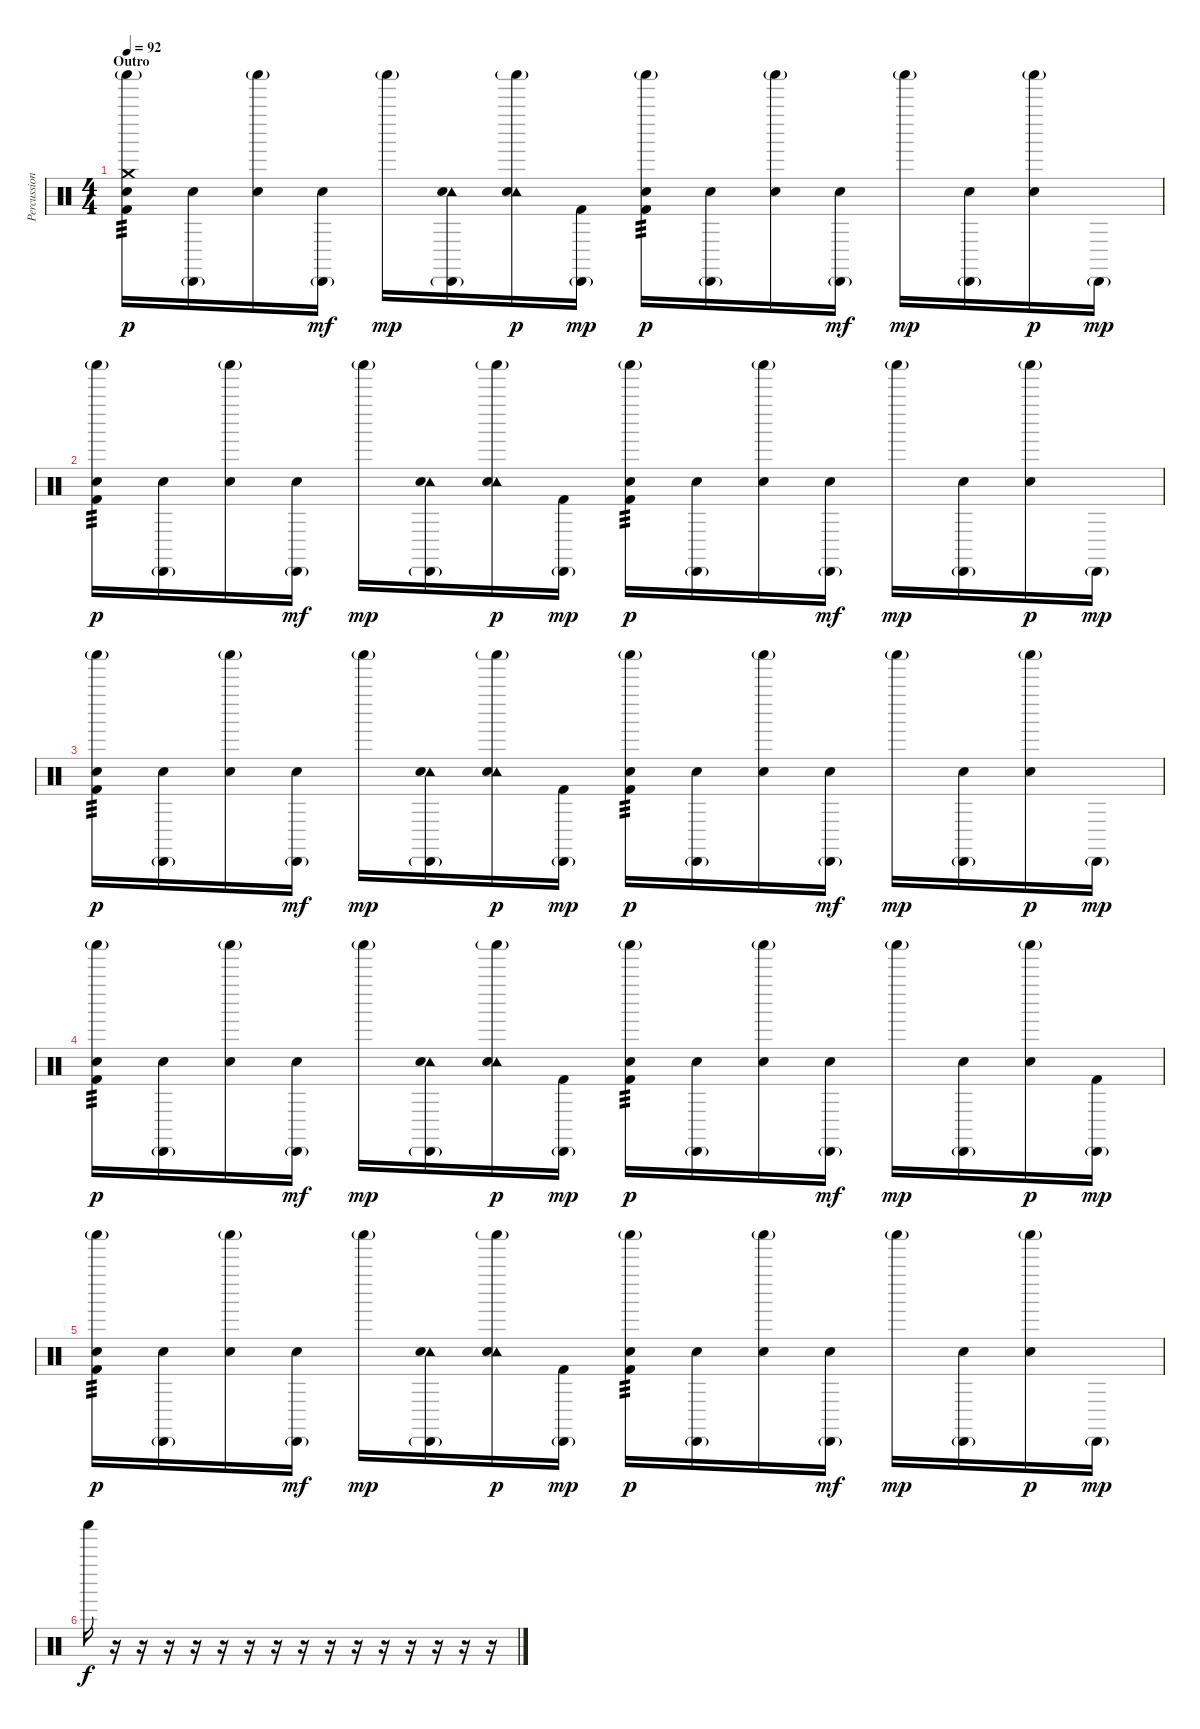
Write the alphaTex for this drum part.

\track ("Percussion2" "Percussion") {instrument percussion}
\staff {score}
\articulation defaults
\ts (4 4)
\section ("" "Outro")
\tempo 92
\clef neutral
\ks c
("Shaker (hit)"{g} "Crash medium (hit)" "Snare (hit) 2" "Kick (hit) 2").16{tp 3 dy p} ("Cabasa (hit)"{g} "Snare (hit) 2").16 ("Shaker (hit)"{g} "Snare (hit) 2").16 ("Cabasa (hit)"{g} "Snare (hit) 2").16{dy mf} "Shaker (hit)"{g}.16{dy mp} ("Cabasa (hit)"{g} "Tambourine (hit)" "Snare (hit) 2").16 ("Shaker (hit)"{g} "Tambourine (hit)" "Snare (hit) 2").16{dy p} ("Cabasa (hit)"{g} "Kick (hit) 2").16{dy mp} ("Shaker (hit)"{g} "Snare (hit) 2" "Kick (hit) 2").16{tp 3 dy p} ("Cabasa (hit)"{g} "Snare (hit) 2").16 ("Shaker (hit)"{g} "Snare (hit) 2").16 ("Cabasa (hit)"{g} "Snare (hit) 2").16{dy mf} "Shaker (hit)"{g}.16{dy mp} ("Cabasa (hit)"{g} "Snare (hit) 2").16 ("Shaker (hit)"{g} "Snare (hit) 2").16{dy p} "Cabasa (hit)"{g}.16{dy mp} |
("Shaker (hit)"{g} "Snare (hit) 2" "Kick (hit) 2").16{tp 3 dy p} ("Cabasa (hit)"{g} "Snare (hit) 2").16 ("Shaker (hit)"{g} "Snare (hit) 2").16 ("Cabasa (hit)"{g} "Snare (hit) 2").16{dy mf} "Shaker (hit)"{g}.16{dy mp} ("Cabasa (hit)"{g} "Tambourine (hit)" "Snare (hit) 2").16 ("Shaker (hit)"{g} "Tambourine (hit)" "Snare (hit) 2").16{dy p} ("Cabasa (hit)"{g} "Kick (hit) 2").16{dy mp} ("Shaker (hit)"{g} "Snare (hit) 2" "Kick (hit) 2").16{tp 3 dy p} ("Cabasa (hit)"{g} "Snare (hit) 2").16 ("Shaker (hit)"{g} "Snare (hit) 2").16 ("Cabasa (hit)"{g} "Snare (hit) 2").16{dy mf} "Shaker (hit)"{g}.16{dy mp} ("Cabasa (hit)"{g} "Snare (hit) 2").16 ("Shaker (hit)"{g} "Snare (hit) 2").16{dy p} "Cabasa (hit)"{g}.16{dy mp} |
("Shaker (hit)"{g} "Snare (hit) 2" "Kick (hit) 2").16{tp 3 dy p} ("Cabasa (hit)"{g} "Snare (hit) 2").16 ("Shaker (hit)"{g} "Snare (hit) 2").16 ("Cabasa (hit)"{g} "Snare (hit) 2").16{dy mf} "Shaker (hit)"{g}.16{dy mp} ("Cabasa (hit)"{g} "Tambourine (hit)" "Snare (hit) 2").16 ("Shaker (hit)"{g} "Tambourine (hit)" "Snare (hit) 2").16{dy p} ("Cabasa (hit)"{g} "Kick (hit) 2").16{dy mp} ("Shaker (hit)"{g} "Snare (hit) 2" "Kick (hit) 2").16{tp 3 dy p} ("Cabasa (hit)"{g} "Snare (hit) 2").16 ("Shaker (hit)"{g} "Snare (hit) 2").16 ("Cabasa (hit)"{g} "Snare (hit) 2").16{dy mf} "Shaker (hit)"{g}.16{dy mp} ("Cabasa (hit)"{g} "Snare (hit) 2").16 ("Shaker (hit)"{g} "Snare (hit) 2").16{dy p} "Cabasa (hit)"{g}.16{dy mp} |
("Shaker (hit)"{g} "Snare (hit) 2" "Kick (hit) 2").16{tp 3 dy p} ("Cabasa (hit)"{g} "Snare (hit) 2").16 ("Shaker (hit)"{g} "Snare (hit) 2").16 ("Cabasa (hit)"{g} "Snare (hit) 2").16{dy mf} "Shaker (hit)"{g}.16{dy mp} ("Cabasa (hit)"{g} "Tambourine (hit)" "Snare (hit) 2").16 ("Shaker (hit)"{g} "Tambourine (hit)" "Snare (hit) 2").16{dy p} ("Cabasa (hit)"{g} "Kick (hit) 2").16{dy mp} ("Shaker (hit)"{g} "Snare (hit) 2" "Kick (hit) 2").16{tp 3 dy p} ("Cabasa (hit)"{g} "Snare (hit) 2").16 ("Shaker (hit)"{g} "Snare (hit) 2").16 ("Cabasa (hit)"{g} "Snare (hit) 2").16{dy mf} "Shaker (hit)"{g}.16{dy mp} ("Cabasa (hit)"{g} "Snare (hit) 2").16 ("Shaker (hit)"{g} "Snare (hit) 2").16{dy p} ("Cabasa (hit)"{g} "Kick (hit) 2").16{dy mp} |
("Shaker (hit)"{g} "Snare (hit) 2" "Kick (hit) 2").16{tp 3 dy p} ("Cabasa (hit)"{g} "Snare (hit) 2").16 ("Shaker (hit)"{g} "Snare (hit) 2").16 ("Cabasa (hit)"{g} "Snare (hit) 2").16{dy mf} "Shaker (hit)"{g}.16{dy mp} ("Cabasa (hit)"{g} "Tambourine (hit)" "Snare (hit) 2").16 ("Shaker (hit)"{g} "Tambourine (hit)" "Snare (hit) 2").16{dy p} ("Cabasa (hit)"{g} "Kick (hit) 2").16{dy mp} ("Shaker (hit)"{g} "Snare (hit) 2" "Kick (hit) 2").16{tp 3 dy p} ("Cabasa (hit)"{g} "Snare (hit) 2").16 ("Shaker (hit)"{g} "Snare (hit) 2").16 ("Cabasa (hit)"{g} "Snare (hit) 2").16{dy mf} "Shaker (hit)"{g}.16{dy mp} ("Cabasa (hit)"{g} "Snare (hit) 2").16 ("Shaker (hit)"{g} "Snare (hit) 2").16{dy p} "Cabasa (hit)"{g}.16{dy mp} |
"Shaker (hit)".16{dy f} r.16 r.16 r.16 r.16 r.16 r.16 r.16 r.16 r.16 r.16 r.16 r.16 r.16 r.16 r.16
